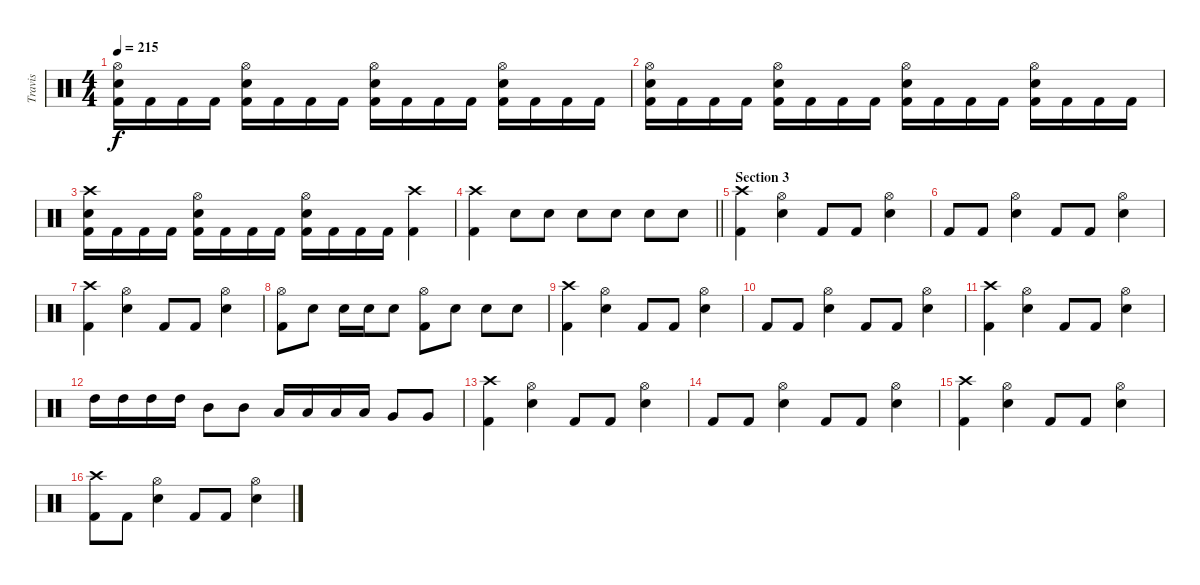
\track ("Travis" "Travis") {instrument percussion}
\staff {score}
\articulation defaults
\ts (4 4)
\tempo 215
\clef neutral
\ks c
("Hi-Hat (open)" "Snare (hit) 2" "Kick (hit) 2").16{dy f} "Kick (hit) 2".16 "Kick (hit) 2".16 "Kick (hit) 2".16 ("Hi-Hat (open)" "Snare (hit) 2" "Kick (hit) 2").16 "Kick (hit) 2".16 "Kick (hit) 2".16 "Kick (hit) 2".16 ("Hi-Hat (open)" "Snare (hit) 2" "Kick (hit) 2").16 "Kick (hit) 2".16 "Kick (hit) 2".16 "Kick (hit) 2".16 ("Hi-Hat (open)" "Snare (hit) 2" "Kick (hit) 2").16 "Kick (hit) 2".16 "Kick (hit) 2".16 "Kick (hit) 2".16 |
("Hi-Hat (open)" "Snare (hit) 2" "Kick (hit) 2").16 "Kick (hit) 2".16 "Kick (hit) 2".16 "Kick (hit) 2".16 ("Hi-Hat (open)" "Snare (hit) 2" "Kick (hit) 2").16 "Kick (hit) 2".16 "Kick (hit) 2".16 "Kick (hit) 2".16 ("Hi-Hat (open)" "Snare (hit) 2" "Kick (hit) 2").16 "Kick (hit) 2".16 "Kick (hit) 2".16 "Kick (hit) 2".16 ("Hi-Hat (open)" "Snare (hit) 2" "Kick (hit) 2").16 "Kick (hit) 2".16 "Kick (hit) 2".16 "Kick (hit) 2".16 |
("Crash high (hit)" "Snare (hit) 2" "Kick (hit) 2").16 "Kick (hit) 2".16 "Kick (hit) 2".16 "Kick (hit) 2".16 ("Hi-Hat (open)" "Snare (hit) 2" "Kick (hit) 2").16 "Kick (hit) 2".16 "Kick (hit) 2".16 "Kick (hit) 2".16 ("Hi-Hat (open)" "Snare (hit) 2" "Kick (hit) 2").16 "Kick (hit) 2".16 "Kick (hit) 2".16 "Kick (hit) 2".16 ("Crash high (hit)" "Kick (hit) 2").4 |
\barLineRight lightlight
("Crash high (hit)" "Kick (hit) 2").4 "Snare (hit) 2".8 "Snare (hit) 2".8 "Snare (hit) 2".8 "Snare (hit) 2".8 "Snare (hit) 2".8 "Snare (hit) 2".8 |
\section ("" "Section 3")
("Crash high (hit)" "Kick (hit) 2").4 ("Hi-Hat (open)" "Snare (hit) 2").4 "Kick (hit) 2".8 "Kick (hit) 2".8 ("Hi-Hat (open)" "Snare (hit) 2").4 |
"Kick (hit) 2".8 "Kick (hit) 2".8 ("Hi-Hat (open)" "Snare (hit) 2").4 "Kick (hit) 2".8 "Kick (hit) 2".8 ("Hi-Hat (open)" "Snare (hit) 2").4 |
("Crash high (hit)" "Kick (hit) 2").4 ("Hi-Hat (open)" "Snare (hit) 2").4 "Kick (hit) 2".8 "Kick (hit) 2".8 ("Hi-Hat (open)" "Snare (hit) 2").4 |
("Hi-Hat (open)" "Kick (hit) 2").8 "Snare (hit) 2".8 "Snare (hit) 2".16 "Snare (hit) 2".16 "Snare (hit) 2".8 ("Hi-Hat (open)" "Kick (hit) 2").8 "Snare (hit) 2".8 "Snare (hit) 2".8 "Snare (hit) 2".8 |
("Crash high (hit)" "Kick (hit) 2").4 ("Hi-Hat (open)" "Snare (hit) 2").4 "Kick (hit) 2".8 "Kick (hit) 2".8 ("Hi-Hat (open)" "Snare (hit) 2").4 |
"Kick (hit) 2".8 "Kick (hit) 2".8 ("Hi-Hat (open)" "Snare (hit) 2").4 "Kick (hit) 2".8 "Kick (hit) 2".8 ("Hi-Hat (open)" "Snare (hit) 2").4 |
("Crash high (hit)" "Kick (hit) 2").4 ("Hi-Hat (open)" "Snare (hit) 2").4 "Kick (hit) 2".8 "Kick (hit) 2".8 ("Hi-Hat (open)" "Snare (hit) 2").4 |
"High Tom (hit)".16 "High Tom (hit)".16 "High Tom (hit)".16 "High Tom (hit)".16 "Mid Tom (hit)".8 "Mid Tom (hit)".8 "Low Tom (hit)".16 "Low Tom (hit)".16 "Low Tom (hit)".16 "Low Tom (hit)".16 "Very Low Tom (hit)".8 "Very Low Tom (hit)".8 |
("Crash high (hit)" "Kick (hit) 2").4 ("Hi-Hat (open)" "Snare (hit) 2").4 "Kick (hit) 2".8 "Kick (hit) 2".8 ("Hi-Hat (open)" "Snare (hit) 2").4 |
"Kick (hit) 2".8 "Kick (hit) 2".8 ("Hi-Hat (open)" "Snare (hit) 2").4 "Kick (hit) 2".8 "Kick (hit) 2".8 ("Hi-Hat (open)" "Snare (hit) 2").4 |
("Crash high (hit)" "Kick (hit) 2").4 ("Hi-Hat (open)" "Snare (hit) 2").4 "Kick (hit) 2".8 "Kick (hit) 2".8 ("Hi-Hat (open)" "Snare (hit) 2").4 |
("Crash high (hit)" "Kick (hit) 2").8 "Kick (hit) 2".8 ("Hi-Hat (open)" "Snare (hit) 2").4 "Kick (hit) 2".8 "Kick (hit) 2".8 ("Hi-Hat (open)" "Snare (hit) 2").4
